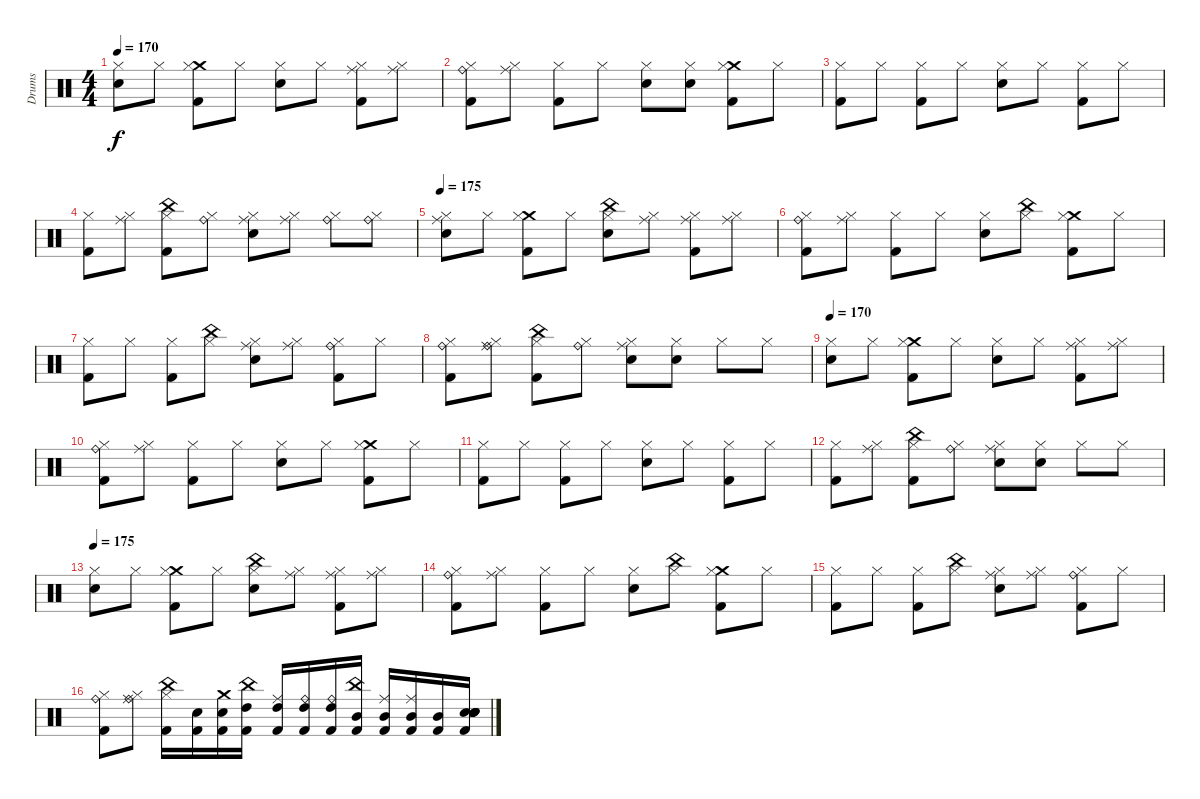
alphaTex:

\track ("Drums" "Drums") {instrument percussion}
\staff {score}
\articulation defaults
\ts (4 4)
\tempo 170
\clef neutral
\ks c
("Electric Snare (hit)" "Hi-Hat (closed)").8{dy f} "Hi-Hat (closed)".8 ("Crash medium (hit)" "Kick (hit) 2" "Hi-Hat (closed)").8 "Hi-Hat (closed)".8 ("Electric Snare (hit)" "Hi-Hat (closed)").8 "Hi-Hat (closed)".8 ("Kick (hit) 2" "Ride (middle)" "Hi-Hat (closed)").8 ("Ride (middle)" "Hi-Hat (closed)").8 |
("Kick (hit) 2" "Ride (bell)" "Hi-Hat (closed)").8 ("Ride (middle)" "Hi-Hat (closed)").8 ("Kick (hit) 2" "Hi-Hat (closed)").8 "Hi-Hat (closed)".8 ("Electric Snare (hit)" "Hi-Hat (closed)").8 ("Electric Snare (hit)" "Hi-Hat (closed)").8 ("Crash medium (hit)" "Kick (hit) 2" "Hi-Hat (closed)").8 "Hi-Hat (closed)".8 |
("Kick (hit) 2" "Hi-Hat (closed)").8 "Hi-Hat (closed)".8 ("Kick (hit) 2" "Hi-Hat (closed)").8 "Hi-Hat (closed)".8 ("Electric Snare (hit)" "Hi-Hat (closed)").8 "Hi-Hat (closed)".8 ("Kick (hit) 2" "Hi-Hat (closed)").8 "Hi-Hat (closed)".8 |
("Kick (hit) 2" "Hi-Hat (closed)").8 ("Ride (middle)" "Hi-Hat (closed)").8 ("Kick (hit) 2" "China (hit)" "Hi-Hat (closed)").8 ("Ride (bell)" "Hi-Hat (closed)").8 ("Ride (middle)" "Electric Snare (hit)" "Hi-Hat (closed)").8 ("Ride (middle)" "Hi-Hat (closed)").8 ("Ride (bell)" "Hi-Hat (closed)").8 ("Ride (bell)" "Hi-Hat (closed)").8 |
\tempo 175
("Ride (middle)" "Electric Snare (hit)" "Hi-Hat (closed)").8 "Hi-Hat (closed)".8 ("Crash medium (hit)" "Kick (hit) 2" "Hi-Hat (closed)").8 "Hi-Hat (closed)".8 ("China (hit)" "Electric Snare (hit)" "Hi-Hat (closed)").8 ("Ride (middle)" "Hi-Hat (closed)").8 ("Kick (hit) 2" "Ride (middle)" "Hi-Hat (closed)").8 ("Ride (middle)" "Hi-Hat (closed)").8 |
("Kick (hit) 2" "Ride (bell)" "Hi-Hat (closed)").8 ("Ride (middle)" "Hi-Hat (closed)").8 ("Kick (hit) 2" "Hi-Hat (closed)").8 "Hi-Hat (closed)".8 ("Electric Snare (hit)" "Hi-Hat (closed)").8 ("China (hit)" "Hi-Hat (closed)").8 ("Crash medium (hit)" "Kick (hit) 2" "Hi-Hat (closed)").8 "Hi-Hat (closed)".8 |
("Kick (hit) 2" "Hi-Hat (closed)").8 "Hi-Hat (closed)".8 ("Kick (hit) 2" "Hi-Hat (closed)").8 ("China (hit)" "Hi-Hat (closed)").8 ("Ride (middle)" "Electric Snare (hit)" "Hi-Hat (closed)").8 ("Ride (middle)" "Hi-Hat (closed)").8 ("Ride (bell)" "Kick (hit) 2" "Hi-Hat (closed)").8 "Hi-Hat (closed)".8 |
("Ride (bell)" "Kick (hit) 2" "Hi-Hat (closed)").8 ("Ride (bell)" "Ride (middle)" "Hi-Hat (closed)").8 ("Kick (hit) 2" "China (hit)" "Hi-Hat (closed)").8 ("Ride (bell)" "Hi-Hat (closed)").8 ("Ride (middle)" "Electric Snare (hit)" "Hi-Hat (closed)").8 ("Electric Snare (hit)" "Hi-Hat (closed)").8 "Hi-Hat (closed)".8 "Hi-Hat (closed)".8 |
\tempo 170
("Electric Snare (hit)" "Hi-Hat (closed)").8 "Hi-Hat (closed)".8 ("Crash medium (hit)" "Kick (hit) 2" "Hi-Hat (closed)").8 "Hi-Hat (closed)".8 ("Electric Snare (hit)" "Hi-Hat (closed)").8 "Hi-Hat (closed)".8 ("Kick (hit) 2" "Ride (middle)" "Hi-Hat (closed)").8 ("Ride (middle)" "Hi-Hat (closed)").8 |
("Kick (hit) 2" "Ride (bell)" "Hi-Hat (closed)").8 ("Ride (middle)" "Hi-Hat (closed)").8 ("Kick (hit) 2" "Hi-Hat (closed)").8 "Hi-Hat (closed)".8 ("Electric Snare (hit)" "Hi-Hat (closed)").8 "Hi-Hat (closed)".8 ("Crash medium (hit)" "Kick (hit) 2" "Hi-Hat (closed)").8 "Hi-Hat (closed)".8 |
("Kick (hit) 2" "Hi-Hat (closed)").8 "Hi-Hat (closed)".8 ("Kick (hit) 2" "Hi-Hat (closed)").8 "Hi-Hat (closed)".8 ("Electric Snare (hit)" "Hi-Hat (closed)").8 "Hi-Hat (closed)".8 ("Kick (hit) 2" "Hi-Hat (closed)").8 "Hi-Hat (closed)".8 |
("Kick (hit) 2" "Hi-Hat (closed)").8 ("Ride (middle)" "Hi-Hat (closed)").8 ("Kick (hit) 2" "China (hit)" "Hi-Hat (closed)").8 ("Ride (bell)" "Hi-Hat (closed)").8 ("Ride (middle)" "Electric Snare (hit)" "Hi-Hat (closed)").8 ("Electric Snare (hit)" "Hi-Hat (closed)").8 "Hi-Hat (closed)".8 "Hi-Hat (closed)".8 |
\tempo 175
("Electric Snare (hit)" "Hi-Hat (closed)").8 "Hi-Hat (closed)".8 ("Crash medium (hit)" "Kick (hit) 2" "Hi-Hat (closed)").8 "Hi-Hat (closed)".8 ("China (hit)" "Electric Snare (hit)" "Hi-Hat (closed)").8 ("Ride (middle)" "Hi-Hat (closed)").8 ("Kick (hit) 2" "Ride (middle)" "Hi-Hat (closed)").8 ("Ride (middle)" "Hi-Hat (closed)").8 |
("Kick (hit) 2" "Ride (bell)" "Hi-Hat (closed)").8 ("Ride (middle)" "Hi-Hat (closed)").8 ("Kick (hit) 2" "Hi-Hat (closed)").8 "Hi-Hat (closed)".8 ("Electric Snare (hit)" "Hi-Hat (closed)").8 ("China (hit)" "Hi-Hat (closed)").8 ("Crash medium (hit)" "Kick (hit) 2" "Hi-Hat (closed)").8 "Hi-Hat (closed)".8 |
("Kick (hit) 2" "Hi-Hat (closed)").8 "Hi-Hat (closed)".8 ("Kick (hit) 2" "Hi-Hat (closed)").8 ("China (hit)" "Hi-Hat (closed)").8 ("Ride (middle)" "Electric Snare (hit)" "Hi-Hat (closed)").8 ("Ride (middle)" "Hi-Hat (closed)").8 ("Ride (bell)" "Kick (hit) 2" "Hi-Hat (closed)").8 "Hi-Hat (closed)".8 |
("Ride (bell)" "Kick (hit) 2" "Hi-Hat (closed)").8 ("Ride (bell)" "Ride (middle)" "Hi-Hat (closed)").8 ("Kick (hit) 2" "China (hit)" "Hi-Hat (closed)").16 ("Kick (hit) 2" "Electric Snare (hit)").16 ("Kick (hit) 2" "Electric Snare (hit)" "Crash medium (hit)").16 ("Kick (hit) 2" "High Tom (hit)" "China (hit)").16 ("Kick (hit) 2" "High Tom (hit)" "Ride (middle)").16 ("Kick (hit) 2" "High Tom (hit)" "Ride (bell)").16 ("Kick (hit) 2" "High Tom (hit)" "Ride (bell)").16 ("Kick (hit) 2" "Mid Tom (hit)" "China (hit)").16 ("Kick (hit) 2" "Mid Tom (hit)" "Ride (middle)").16 ("Kick (hit) 2" "Mid Tom (hit)" "Ride (middle)").16 ("Kick (hit) 2" "Mid Tom (hit)").16 ("Electric Snare (hit)" "Electric Snare (hit)" "Kick (hit) 2" "Electric Snare (hit)" "Electric Snare (hit)" "Electric Snare (hit)").16
